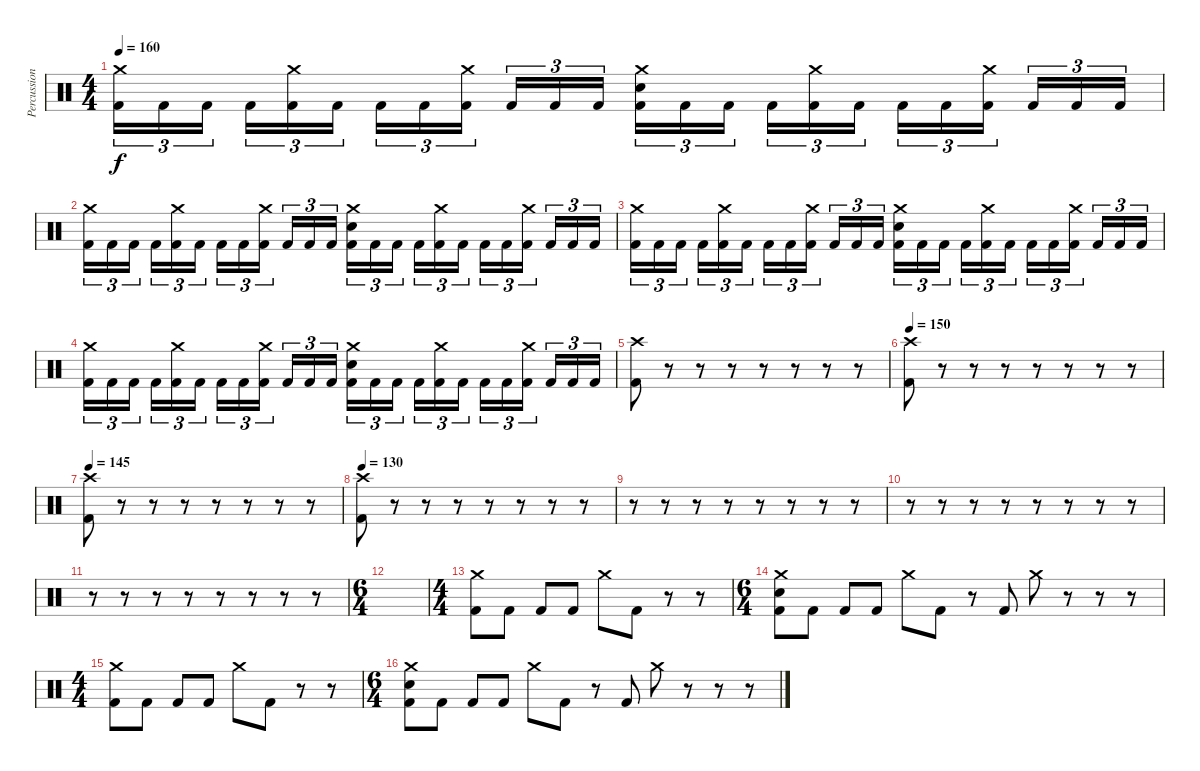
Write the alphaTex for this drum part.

\track ("Percussion" "Percussion") {instrument percussion}
\staff {score}
\articulation defaults
\ts (4 4)
\tempo 160
\clef neutral
\ks c
("Crash medium (hit)" "Kick (hit) 2").16{tu (3 2) dy f} "Kick (hit) 2".16{tu (3 2)} "Kick (hit) 2".16{tu (3 2)} "Kick (hit) 2".16{tu (3 2)} ("Crash medium (hit)" "Kick (hit) 2").16{tu (3 2)} "Kick (hit) 2".16{tu (3 2)} "Kick (hit) 2".16{tu (3 2)} "Kick (hit) 2".16{tu (3 2)} ("Crash medium (hit)" "Kick (hit) 2").16{tu (3 2)} "Kick (hit) 2".16{tu (3 2)} "Kick (hit) 2".16{tu (3 2)} "Kick (hit) 2".16{tu (3 2)} ("Crash medium (hit)" "Electric Snare (hit)" "Kick (hit) 2").16{tu (3 2)} "Kick (hit) 2".16{tu (3 2)} "Kick (hit) 2".16{tu (3 2)} "Kick (hit) 2".16{tu (3 2)} ("Crash medium (hit)" "Kick (hit) 2").16{tu (3 2)} "Kick (hit) 2".16{tu (3 2)} "Kick (hit) 2".16{tu (3 2)} "Kick (hit) 2".16{tu (3 2)} ("Crash medium (hit)" "Kick (hit) 2").16{tu (3 2)} "Kick (hit) 2".16{tu (3 2)} "Kick (hit) 2".16{tu (3 2)} "Kick (hit) 2".16{tu (3 2)} |
("Crash medium (hit)" "Kick (hit) 2").16{tu (3 2)} "Kick (hit) 2".16{tu (3 2)} "Kick (hit) 2".16{tu (3 2)} "Kick (hit) 2".16{tu (3 2)} ("Crash medium (hit)" "Kick (hit) 2").16{tu (3 2)} "Kick (hit) 2".16{tu (3 2)} "Kick (hit) 2".16{tu (3 2)} "Kick (hit) 2".16{tu (3 2)} ("Crash medium (hit)" "Kick (hit) 2").16{tu (3 2)} "Kick (hit) 2".16{tu (3 2)} "Kick (hit) 2".16{tu (3 2)} "Kick (hit) 2".16{tu (3 2)} ("Crash medium (hit)" "Electric Snare (hit)" "Kick (hit) 2").16{tu (3 2)} "Kick (hit) 2".16{tu (3 2)} "Kick (hit) 2".16{tu (3 2)} "Kick (hit) 2".16{tu (3 2)} ("Crash medium (hit)" "Kick (hit) 2").16{tu (3 2)} "Kick (hit) 2".16{tu (3 2)} "Kick (hit) 2".16{tu (3 2)} "Kick (hit) 2".16{tu (3 2)} ("Crash medium (hit)" "Kick (hit) 2").16{tu (3 2)} "Kick (hit) 2".16{tu (3 2)} "Kick (hit) 2".16{tu (3 2)} "Kick (hit) 2".16{tu (3 2)} |
("Crash medium (hit)" "Kick (hit) 2").16{tu (3 2)} "Kick (hit) 2".16{tu (3 2)} "Kick (hit) 2".16{tu (3 2)} "Kick (hit) 2".16{tu (3 2)} ("Crash medium (hit)" "Kick (hit) 2").16{tu (3 2)} "Kick (hit) 2".16{tu (3 2)} "Kick (hit) 2".16{tu (3 2)} "Kick (hit) 2".16{tu (3 2)} ("Crash medium (hit)" "Kick (hit) 2").16{tu (3 2)} "Kick (hit) 2".16{tu (3 2)} "Kick (hit) 2".16{tu (3 2)} "Kick (hit) 2".16{tu (3 2)} ("Crash medium (hit)" "Electric Snare (hit)" "Kick (hit) 2").16{tu (3 2)} "Kick (hit) 2".16{tu (3 2)} "Kick (hit) 2".16{tu (3 2)} "Kick (hit) 2".16{tu (3 2)} ("Crash medium (hit)" "Kick (hit) 2").16{tu (3 2)} "Kick (hit) 2".16{tu (3 2)} "Kick (hit) 2".16{tu (3 2)} "Kick (hit) 2".16{tu (3 2)} ("Crash medium (hit)" "Kick (hit) 2").16{tu (3 2)} "Kick (hit) 2".16{tu (3 2)} "Kick (hit) 2".16{tu (3 2)} "Kick (hit) 2".16{tu (3 2)} |
("Crash medium (hit)" "Kick (hit) 2").16{tu (3 2)} "Kick (hit) 2".16{tu (3 2)} "Kick (hit) 2".16{tu (3 2)} "Kick (hit) 2".16{tu (3 2)} ("Crash medium (hit)" "Kick (hit) 2").16{tu (3 2)} "Kick (hit) 2".16{tu (3 2)} "Kick (hit) 2".16{tu (3 2)} "Kick (hit) 2".16{tu (3 2)} ("Crash medium (hit)" "Kick (hit) 2").16{tu (3 2)} "Kick (hit) 2".16{tu (3 2)} "Kick (hit) 2".16{tu (3 2)} "Kick (hit) 2".16{tu (3 2)} ("Crash medium (hit)" "Electric Snare (hit)" "Kick (hit) 2").16{tu (3 2)} "Kick (hit) 2".16{tu (3 2)} "Kick (hit) 2".16{tu (3 2)} "Kick (hit) 2".16{tu (3 2)} ("Crash medium (hit)" "Kick (hit) 2").16{tu (3 2)} "Kick (hit) 2".16{tu (3 2)} "Kick (hit) 2".16{tu (3 2)} "Kick (hit) 2".16{tu (3 2)} ("Crash medium (hit)" "Kick (hit) 2").16{tu (3 2)} "Kick (hit) 2".16{tu (3 2)} "Kick (hit) 2".16{tu (3 2)} "Kick (hit) 2".16{tu (3 2)} |
("Crash high (hit)" "Kick (hit) 2").8 r.8 r.8 r.8 r.8 r.8 r.8 r.8 |
\tempo 150
("Crash high (hit)" "Kick (hit) 2").8 r.8 r.8 r.8 r.8 r.8 r.8 r.8 |
\tempo 145
("Crash high (hit)" "Kick (hit) 2").8 r.8 r.8 r.8 r.8 r.8 r.8 r.8 |
\tempo 130
("Crash high (hit)" "Kick (hit) 2").8 r.8{volume 0} r.8 r.8 r.8 r.8 r.8 r.8 |
r.8 r.8 r.8 r.8 r.8 r.8 r.8 r.8 |
r.8 r.8 r.8 r.8 r.8 r.8 r.8 r.8 |
r.8 r.8 r.8 r.8 r.8 r.8 r.8 r.8 |
\ts (6 4)
|
\ts (4 4)
("Crash medium (hit)" "Kick (hit) 2").8{volume 13} "Kick (hit) 2".8 "Kick (hit) 2".8 "Kick (hit) 2".8 "Crash medium (hit)".8 "Kick (hit) 2".8 r.8 r.8 |
\ts (6 4)
("Crash medium (hit)" "Electric Snare (hit)" "Kick (hit) 2").8 "Kick (hit) 2".8 "Kick (hit) 2".8 "Kick (hit) 2".8 "Crash medium (hit)".8 "Kick (hit) 2".8 r.8 "Kick (hit) 2".8 "Crash medium (hit)".8 r.8 r.8 r.8 |
\ts (4 4)
("Crash medium (hit)" "Kick (hit) 2").8 "Kick (hit) 2".8 "Kick (hit) 2".8 "Kick (hit) 2".8 "Crash medium (hit)".8 "Kick (hit) 2".8 r.8 r.8 |
\ts (6 4)
("Crash medium (hit)" "Electric Snare (hit)" "Kick (hit) 2").8 "Kick (hit) 2".8 "Kick (hit) 2".8 "Kick (hit) 2".8 "Crash medium (hit)".8 "Kick (hit) 2".8 r.8 "Kick (hit) 2".8 "Crash medium (hit)".8 r.8 r.8 r.8
